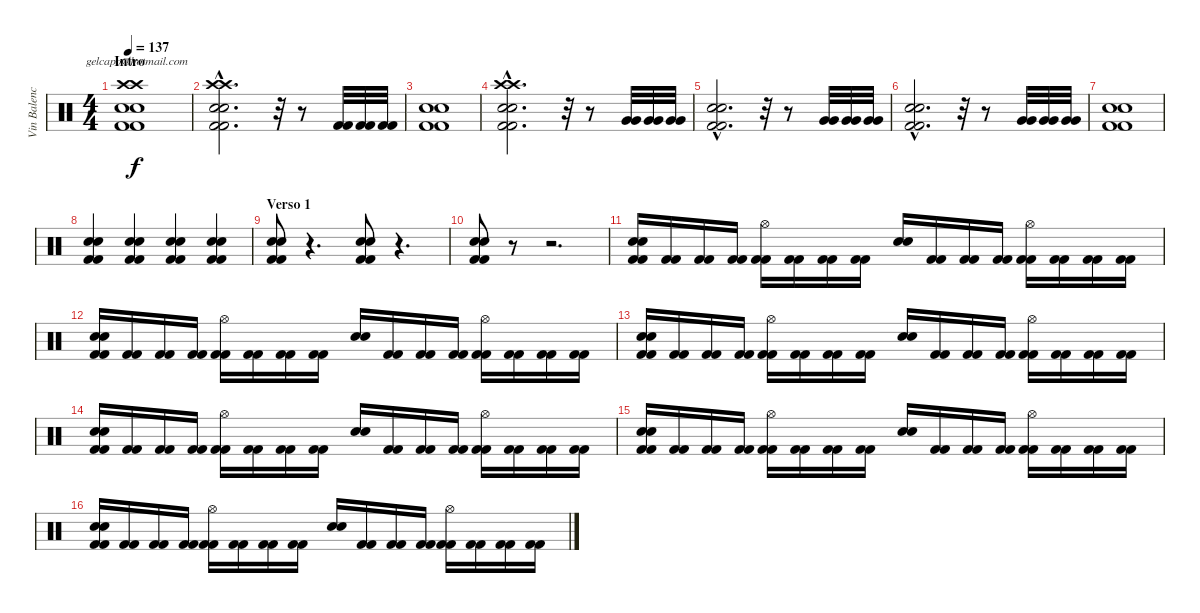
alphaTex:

\track ("Vin Balencia (bateria)" "Vin Balenc") {instrument percussion}
\staff {score}
\articulation defaults
\chord ("gelcapo@hotmail.com") {firstfret 0}
\ts (4 4)
\section ("" "Intro")
\tempo 137
\clef neutral
\ks c
("Crash high (hit)" "Crash high (hit)" "Snare (hit) 2" "Snare (hit) 2" "Kick (hit) 2" "Kick (hit) 2").1{ch "gelcapo@hotmail.com" dy f} |
("Crash high (hit)"{hac} "Crash high (hit)"{hac} "Snare (hit) 2"{hac} "Snare (hit) 2"{hac} "Kick (hit) 2"{hac} "Kick (hit) 2"{hac}).2{d} r.32 r.8 ("Kick (hit) 2" "Kick (hit) 2").32 ("Kick (hit) 2" "Kick (hit) 2").32 ("Kick (hit) 2" "Kick (hit) 2").32 |
("Electric Snare (hit)" "Electric Snare (hit)" "Kick (hit) 2" "Kick (hit) 2").1 |
("Crash high (hit)"{hac} "Crash high (hit)"{hac} "Snare (hit) 2"{hac} "Snare (hit) 2"{hac} "Kick (hit) 2"{hac} "Kick (hit) 2"{hac}).2{d} r.32 r.8 ("Very Low Tom (hit)" "Very Low Tom (hit)").32 ("Very Low Tom (hit)" "Very Low Tom (hit)").32 ("Very Low Tom (hit)" "Very Low Tom (hit)").32 |
("Electric Snare (hit)"{hac} "Electric Snare (hit)"{hac} "Kick (hit) 2"{hac} "Kick (hit) 2"{hac}).2{d} r.32 r.8 ("Very Low Tom (hit)" "Very Low Tom (hit)").32 ("Very Low Tom (hit)" "Very Low Tom (hit)").32 ("Very Low Tom (hit)" "Very Low Tom (hit)").32 |
("Electric Snare (hit)"{hac} "Electric Snare (hit)"{hac} "Kick (hit) 2"{hac} "Kick (hit) 2"{hac}).2{d} r.32 r.8 ("Very Low Tom (hit)" "Very Low Tom (hit)").32 ("Very Low Tom (hit)" "Very Low Tom (hit)").32 ("Very Low Tom (hit)" "Very Low Tom (hit)").32 |
("Electric Snare (hit)" "Electric Snare (hit)" "Kick (hit) 2" "Kick (hit) 2").1 |
("Electric Snare (hit)" "Electric Snare (hit)" "Kick (hit) 2" "Kick (hit) 2").4 ("Snare (hit) 2" "Snare (hit) 2" "Kick (hit) 2" "Kick (hit) 2").4 ("Electric Snare (hit)" "Electric Snare (hit)" "Kick (hit) 2" "Kick (hit) 2").4 ("Snare (hit) 2" "Snare (hit) 2" "Kick (hit) 2" "Kick (hit) 2").4 |
\section ("" "Verso 1")
("Electric Snare (hit)" "Electric Snare (hit)" "Kick (hit) 2" "Kick (hit) 2").8 r.4{d} ("Electric Snare (hit)" "Electric Snare (hit)" "Kick (hit) 2" "Kick (hit) 2").8 r.4{d} |
("Electric Snare (hit)" "Electric Snare (hit)" "Kick (hit) 2" "Kick (hit) 2").8 r.8 r.2{d} |
("Electric Snare (hit)" "Electric Snare (hit)" "Kick (hit) 2" "Kick (hit) 2").16 ("Kick (hit) 2" "Kick (hit) 2").16 ("Kick (hit) 2" "Kick (hit) 2").16 ("Kick (hit) 2" "Kick (hit) 2").16 ("Hi-Hat (open)" "Kick (hit) 2" "Kick (hit) 2").16 ("Kick (hit) 2" "Kick (hit) 2").16 ("Kick (hit) 2" "Kick (hit) 2").16 ("Kick (hit) 2" "Kick (hit) 2").16 ("Electric Snare (hit)" "Electric Snare (hit)").16 ("Kick (hit) 2" "Kick (hit) 2").16 ("Kick (hit) 2" "Kick (hit) 2").16 ("Kick (hit) 2" "Kick (hit) 2").16 ("Hi-Hat (open)" "Kick (hit) 2" "Kick (hit) 2").16 ("Kick (hit) 2" "Kick (hit) 2").16 ("Kick (hit) 2" "Kick (hit) 2").16 ("Kick (hit) 2" "Kick (hit) 2").16 |
("Electric Snare (hit)" "Electric Snare (hit)" "Kick (hit) 2" "Kick (hit) 2").16 ("Kick (hit) 2" "Kick (hit) 2").16 ("Kick (hit) 2" "Kick (hit) 2").16 ("Kick (hit) 2" "Kick (hit) 2").16 ("Hi-Hat (open)" "Kick (hit) 2" "Kick (hit) 2").16 ("Kick (hit) 2" "Kick (hit) 2").16 ("Kick (hit) 2" "Kick (hit) 2").16 ("Kick (hit) 2" "Kick (hit) 2").16 ("Electric Snare (hit)" "Electric Snare (hit)").16 ("Kick (hit) 2" "Kick (hit) 2").16 ("Kick (hit) 2" "Kick (hit) 2").16 ("Kick (hit) 2" "Kick (hit) 2").16 ("Hi-Hat (open)" "Kick (hit) 2" "Kick (hit) 2").16 ("Kick (hit) 2" "Kick (hit) 2").16 ("Kick (hit) 2" "Kick (hit) 2").16 ("Kick (hit) 2" "Kick (hit) 2").16 |
("Electric Snare (hit)" "Electric Snare (hit)" "Kick (hit) 2" "Kick (hit) 2").16 ("Kick (hit) 2" "Kick (hit) 2").16 ("Kick (hit) 2" "Kick (hit) 2").16 ("Kick (hit) 2" "Kick (hit) 2").16 ("Hi-Hat (open)" "Kick (hit) 2" "Kick (hit) 2").16 ("Kick (hit) 2" "Kick (hit) 2").16 ("Kick (hit) 2" "Kick (hit) 2").16 ("Kick (hit) 2" "Kick (hit) 2").16 ("Electric Snare (hit)" "Electric Snare (hit)").16 ("Kick (hit) 2" "Kick (hit) 2").16 ("Kick (hit) 2" "Kick (hit) 2").16 ("Kick (hit) 2" "Kick (hit) 2").16 ("Hi-Hat (open)" "Kick (hit) 2" "Kick (hit) 2").16 ("Kick (hit) 2" "Kick (hit) 2").16 ("Kick (hit) 2" "Kick (hit) 2").16 ("Kick (hit) 2" "Kick (hit) 2").16 |
("Electric Snare (hit)" "Electric Snare (hit)" "Kick (hit) 2" "Kick (hit) 2").16 ("Kick (hit) 2" "Kick (hit) 2").16 ("Kick (hit) 2" "Kick (hit) 2").16 ("Kick (hit) 2" "Kick (hit) 2").16 ("Hi-Hat (open)" "Kick (hit) 2" "Kick (hit) 2").16 ("Kick (hit) 2" "Kick (hit) 2").16 ("Kick (hit) 2" "Kick (hit) 2").16 ("Kick (hit) 2" "Kick (hit) 2").16 ("Electric Snare (hit)" "Electric Snare (hit)").16 ("Kick (hit) 2" "Kick (hit) 2").16 ("Kick (hit) 2" "Kick (hit) 2").16 ("Kick (hit) 2" "Kick (hit) 2").16 ("Hi-Hat (open)" "Kick (hit) 2" "Kick (hit) 2").16 ("Kick (hit) 2" "Kick (hit) 2").16 ("Kick (hit) 2" "Kick (hit) 2").16 ("Kick (hit) 2" "Kick (hit) 2").16 |
("Electric Snare (hit)" "Electric Snare (hit)" "Kick (hit) 2" "Kick (hit) 2").16 ("Kick (hit) 2" "Kick (hit) 2").16 ("Kick (hit) 2" "Kick (hit) 2").16 ("Kick (hit) 2" "Kick (hit) 2").16 ("Hi-Hat (open)" "Kick (hit) 2" "Kick (hit) 2").16 ("Kick (hit) 2" "Kick (hit) 2").16 ("Kick (hit) 2" "Kick (hit) 2").16 ("Kick (hit) 2" "Kick (hit) 2").16 ("Electric Snare (hit)" "Electric Snare (hit)").16 ("Kick (hit) 2" "Kick (hit) 2").16 ("Kick (hit) 2" "Kick (hit) 2").16 ("Kick (hit) 2" "Kick (hit) 2").16 ("Hi-Hat (open)" "Kick (hit) 2" "Kick (hit) 2").16 ("Kick (hit) 2" "Kick (hit) 2").16 ("Kick (hit) 2" "Kick (hit) 2").16 ("Kick (hit) 2" "Kick (hit) 2").16 |
("Electric Snare (hit)" "Electric Snare (hit)" "Kick (hit) 2" "Kick (hit) 2").16 ("Kick (hit) 2" "Kick (hit) 2").16 ("Kick (hit) 2" "Kick (hit) 2").16 ("Kick (hit) 2" "Kick (hit) 2").16 ("Hi-Hat (open)" "Kick (hit) 2" "Kick (hit) 2").16 ("Kick (hit) 2" "Kick (hit) 2").16 ("Kick (hit) 2" "Kick (hit) 2").16 ("Kick (hit) 2" "Kick (hit) 2").16 ("Electric Snare (hit)" "Electric Snare (hit)").16 ("Kick (hit) 2" "Kick (hit) 2").16 ("Kick (hit) 2" "Kick (hit) 2").16 ("Kick (hit) 2" "Kick (hit) 2").16 ("Hi-Hat (open)" "Kick (hit) 2" "Kick (hit) 2").16 ("Kick (hit) 2" "Kick (hit) 2").16 ("Kick (hit) 2" "Kick (hit) 2").16 ("Kick (hit) 2" "Kick (hit) 2").16
